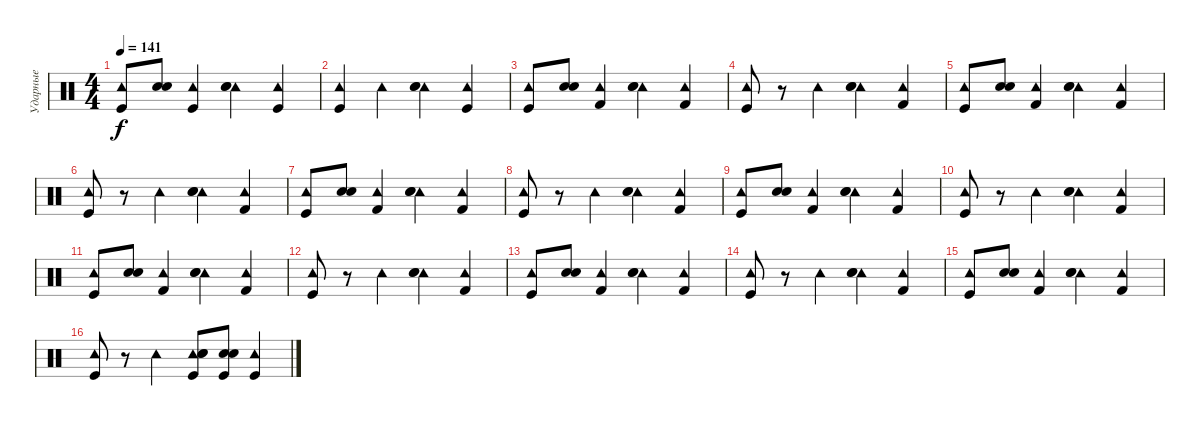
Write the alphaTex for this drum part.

\track ("Ударные" "Ударные") {instrument percussion}
\staff {score}
\articulation defaults
\ts (4 4)
\tempo 141
\clef neutral
\ks c
("Tambourine (hit)" "Kick (hit)").8{dy f} ("Snare (hit) 2" "Electric Snare (hit)").8 ("Tambourine (hit)" "Kick (hit)").4 ("Tambourine (hit)" "Snare (hit) 2" "Electric Snare (hit)").4 ("Tambourine (hit)" "Kick (hit)").4 |
("Tambourine (hit)" "Kick (hit)").4 "Tambourine (hit)".4 ("Tambourine (hit)" "Snare (hit) 2" "Electric Snare (hit)").4 ("Tambourine (hit)" "Kick (hit)").4 |
("Tambourine (hit)" "Kick (hit)").8 ("Snare (hit) 2" "Electric Snare (hit)").8 ("Tambourine (hit)" "Kick (hit) 2").4 ("Tambourine (hit)" "Snare (hit) 2" "Electric Snare (hit)").4 ("Tambourine (hit)" "Kick (hit) 2").4 |
("Tambourine (hit)" "Kick (hit)").8 r.8 "Tambourine (hit)".4 ("Tambourine (hit)" "Snare (hit) 2" "Electric Snare (hit)").4 ("Tambourine (hit)" "Kick (hit) 2").4 |
("Tambourine (hit)" "Kick (hit)").8 ("Snare (hit) 2" "Electric Snare (hit)").8 ("Tambourine (hit)" "Kick (hit) 2").4 ("Tambourine (hit)" "Snare (hit) 2" "Electric Snare (hit)").4 ("Tambourine (hit)" "Kick (hit) 2").4 |
("Tambourine (hit)" "Kick (hit)").8 r.8 "Tambourine (hit)".4 ("Tambourine (hit)" "Snare (hit) 2" "Electric Snare (hit)").4 ("Tambourine (hit)" "Kick (hit) 2").4 |
("Tambourine (hit)" "Kick (hit)").8 ("Snare (hit) 2" "Electric Snare (hit)").8 ("Tambourine (hit)" "Kick (hit) 2").4 ("Tambourine (hit)" "Snare (hit) 2" "Electric Snare (hit)").4 ("Tambourine (hit)" "Kick (hit) 2").4 |
("Tambourine (hit)" "Kick (hit)").8 r.8 "Tambourine (hit)".4 ("Tambourine (hit)" "Snare (hit) 2" "Electric Snare (hit)").4 ("Tambourine (hit)" "Kick (hit) 2").4 |
("Tambourine (hit)" "Kick (hit)").8 ("Snare (hit) 2" "Electric Snare (hit)").8 ("Tambourine (hit)" "Kick (hit) 2").4 ("Tambourine (hit)" "Snare (hit) 2" "Electric Snare (hit)").4 ("Tambourine (hit)" "Kick (hit) 2").4 |
("Tambourine (hit)" "Kick (hit)").8 r.8 "Tambourine (hit)".4 ("Tambourine (hit)" "Snare (hit) 2" "Electric Snare (hit)").4 ("Tambourine (hit)" "Kick (hit) 2").4 |
("Tambourine (hit)" "Kick (hit)").8 ("Snare (hit) 2" "Electric Snare (hit)").8 ("Tambourine (hit)" "Kick (hit) 2").4 ("Tambourine (hit)" "Snare (hit) 2" "Electric Snare (hit)").4 ("Tambourine (hit)" "Kick (hit) 2").4 |
("Tambourine (hit)" "Kick (hit)").8 r.8 "Tambourine (hit)".4 ("Tambourine (hit)" "Snare (hit) 2" "Electric Snare (hit)").4 ("Tambourine (hit)" "Kick (hit) 2").4 |
("Tambourine (hit)" "Kick (hit)").8 ("Snare (hit) 2" "Electric Snare (hit)").8 ("Tambourine (hit)" "Kick (hit) 2").4 ("Tambourine (hit)" "Snare (hit) 2" "Electric Snare (hit)").4 ("Tambourine (hit)" "Kick (hit) 2").4 |
("Tambourine (hit)" "Kick (hit)").8 r.8 "Tambourine (hit)".4 ("Tambourine (hit)" "Snare (hit) 2" "Electric Snare (hit)").4 ("Tambourine (hit)" "Kick (hit) 2").4 |
("Tambourine (hit)" "Kick (hit)").8 ("Snare (hit) 2" "Electric Snare (hit)").8 ("Tambourine (hit)" "Kick (hit) 2").4 ("Tambourine (hit)" "Snare (hit) 2" "Electric Snare (hit)").4 ("Tambourine (hit)" "Kick (hit) 2").4 |
("Tambourine (hit)" "Kick (hit)").8 r.8 "Tambourine (hit)".4 ("Tambourine (hit)" "Snare (hit) 2" "Kick (hit)" "Electric Snare (hit)").8 ("Snare (hit) 2" "Kick (hit)" "Electric Snare (hit)").8 ("Tambourine (hit)" "Kick (hit)").4
